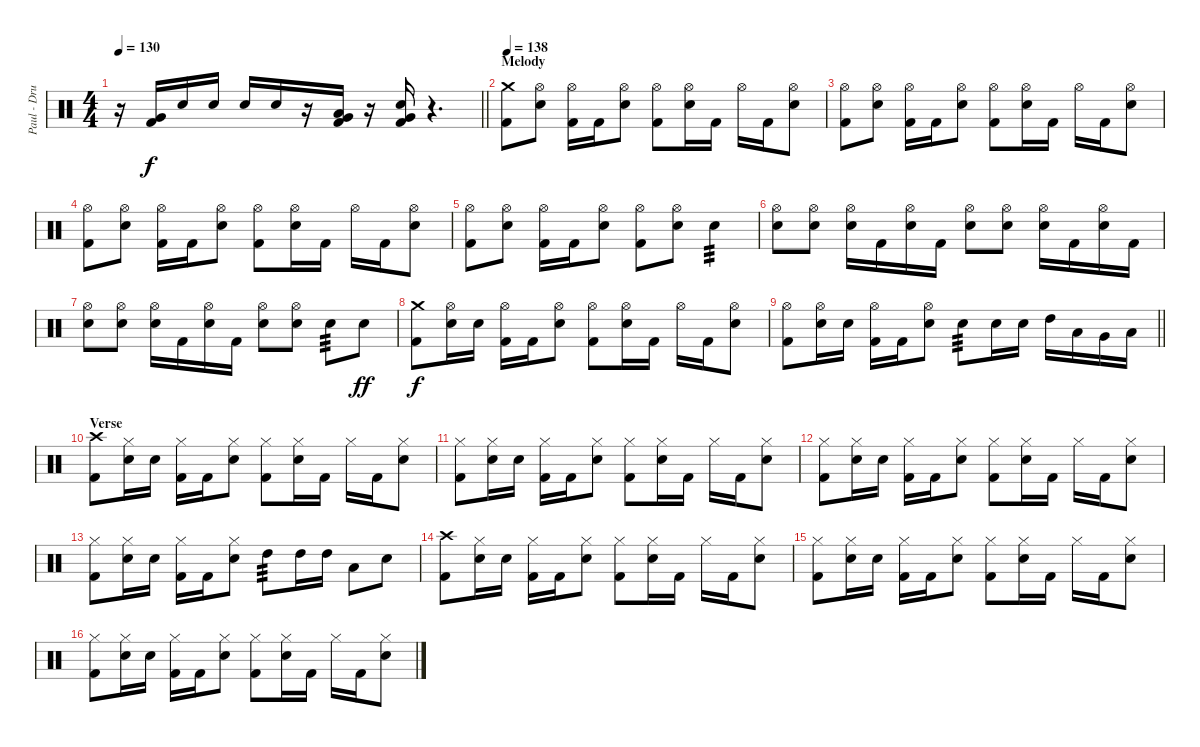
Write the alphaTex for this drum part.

\track ("Paul - Drums" "Paul - Dru") {instrument percussion}
\staff {score}
\articulation defaults
\ts (4 4)
\tempo 130
\clef neutral
\barLineRight lightlight
\ks c
r.16{dy f} ("Very Low Tom (hit)" "Kick (hit) 2").16{volume 12} "Electric Snare (hit)".16 "Electric Snare (hit)".16 "Electric Snare (hit)".16 "Electric Snare (hit)".16 r.16 ("Very Low Tom (hit)" "Low Floor Tom (hit)" "Kick (hit) 2").16 r.16 ("Electric Snare (hit)" "Very Low Tom (hit)" "Kick (hit) 2").16 r.4{d} |
\section ("" "Melody")
\tempo 138
("Crash medium (hit)" "Kick (hit) 2").8 ("Hi-Hat (open)" "Electric Snare (hit)").8 ("Hi-Hat (open)" "Kick (hit) 2").16 "Kick (hit) 2".16 ("Hi-Hat (open)" "Electric Snare (hit)").8 ("Hi-Hat (open)" "Kick (hit) 2").8 ("Hi-Hat (open)" "Electric Snare (hit)").16 "Kick (hit) 2".16 "Hi-Hat (open)".16 "Kick (hit) 2".16 ("Hi-Hat (open)" "Electric Snare (hit)").8 |
("Hi-Hat (open)" "Kick (hit) 2").8 ("Hi-Hat (open)" "Electric Snare (hit)").8 ("Hi-Hat (open)" "Kick (hit) 2").16 "Kick (hit) 2".16 ("Hi-Hat (open)" "Electric Snare (hit)").8 ("Hi-Hat (open)" "Kick (hit) 2").8 ("Hi-Hat (open)" "Electric Snare (hit)").16 "Kick (hit) 2".16 "Hi-Hat (open)".16 "Kick (hit) 2".16 ("Hi-Hat (open)" "Electric Snare (hit)").8 |
("Hi-Hat (open)" "Kick (hit) 2").8 ("Hi-Hat (open)" "Electric Snare (hit)").8 ("Hi-Hat (open)" "Kick (hit) 2").16 "Kick (hit) 2".16 ("Hi-Hat (open)" "Electric Snare (hit)").8 ("Hi-Hat (open)" "Kick (hit) 2").8 ("Hi-Hat (open)" "Electric Snare (hit)").16 "Kick (hit) 2".16 "Hi-Hat (open)".16 "Kick (hit) 2".16 ("Hi-Hat (open)" "Electric Snare (hit)").8 |
("Hi-Hat (open)" "Kick (hit) 2").8 ("Hi-Hat (open)" "Electric Snare (hit)").8 ("Hi-Hat (open)" "Kick (hit) 2").16 "Kick (hit) 2".16 ("Hi-Hat (open)" "Electric Snare (hit)").8 ("Hi-Hat (open)" "Kick (hit) 2").8 ("Hi-Hat (open)" "Electric Snare (hit)").8 "Electric Snare (hit)".4{tp 3} |
("Hi-Hat (open)" "Electric Snare (hit)").8 ("Hi-Hat (open)" "Electric Snare (hit)").8 ("Hi-Hat (open)" "Electric Snare (hit)").16 "Kick (hit) 2".16 ("Hi-Hat (open)" "Electric Snare (hit)").16 "Kick (hit) 2".16 ("Hi-Hat (open)" "Electric Snare (hit)").8 ("Hi-Hat (open)" "Electric Snare (hit)").8 ("Hi-Hat (open)" "Electric Snare (hit)").16 "Kick (hit) 2".16 ("Hi-Hat (open)" "Electric Snare (hit)").16 "Kick (hit) 2".16 |
("Hi-Hat (open)" "Electric Snare (hit)").8 ("Hi-Hat (open)" "Electric Snare (hit)").8 ("Hi-Hat (open)" "Electric Snare (hit)").16 "Kick (hit) 2".16 ("Hi-Hat (open)" "Electric Snare (hit)").16 "Kick (hit) 2".16 ("Hi-Hat (open)" "Electric Snare (hit)").8 ("Hi-Hat (open)" "Electric Snare (hit)").8 "Electric Snare (hit)".8{tp 3} "Electric Snare (hit)".8{dy ff} |
("Crash medium (hit)" "Kick (hit) 2").8{dy f} ("Hi-Hat (open)" "Electric Snare (hit)").16 "Electric Snare (hit)".16 ("Hi-Hat (open)" "Kick (hit) 2").16 "Kick (hit) 2".16 ("Hi-Hat (open)" "Electric Snare (hit)").8 ("Hi-Hat (open)" "Kick (hit) 2").8 ("Hi-Hat (open)" "Electric Snare (hit)").16 "Kick (hit) 2".16 "Hi-Hat (open)".16 "Kick (hit) 2".16 ("Hi-Hat (open)" "Electric Snare (hit)").8 |
\barLineRight lightlight
("Hi-Hat (open)" "Kick (hit) 2").8 ("Hi-Hat (open)" "Electric Snare (hit)").16 "Electric Snare (hit)".16 ("Hi-Hat (open)" "Kick (hit) 2").16 "Kick (hit) 2".16 ("Hi-Hat (open)" "Electric Snare (hit)").8 "Electric Snare (hit)".8{tp 3} "Electric Snare (hit)".16 "Electric Snare (hit)".16 "High Tom (hit)".16 "Low Tom (hit)".16 "Very Low Tom (hit)".16 "Low Floor Tom (hit)".16 |
\section ("" "Verse")
("Crash high (hit)" "Kick (hit) 2").8 ("Hi-Hat (closed)" "Electric Snare (hit)").16 "Electric Snare (hit)".16 ("Hi-Hat (closed)" "Kick (hit) 2").16 "Kick (hit) 2".16 ("Hi-Hat (closed)" "Electric Snare (hit)").8 ("Hi-Hat (closed)" "Kick (hit) 2").8 ("Hi-Hat (closed)" "Electric Snare (hit)").16 "Kick (hit) 2".16 "Hi-Hat (closed)".16 "Kick (hit) 2".16 ("Hi-Hat (closed)" "Electric Snare (hit)").8 |
("Hi-Hat (closed)" "Kick (hit) 2").8 ("Hi-Hat (closed)" "Electric Snare (hit)").16 "Electric Snare (hit)".16 ("Hi-Hat (closed)" "Kick (hit) 2").16 "Kick (hit) 2".16 ("Hi-Hat (closed)" "Electric Snare (hit)").8 ("Hi-Hat (closed)" "Kick (hit) 2").8 ("Hi-Hat (closed)" "Electric Snare (hit)").16 "Kick (hit) 2".16 "Hi-Hat (closed)".16 "Kick (hit) 2".16 ("Hi-Hat (closed)" "Electric Snare (hit)").8 |
("Hi-Hat (closed)" "Kick (hit) 2").8 ("Hi-Hat (closed)" "Electric Snare (hit)").16 "Electric Snare (hit)".16 ("Hi-Hat (closed)" "Kick (hit) 2").16 "Kick (hit) 2".16 ("Hi-Hat (closed)" "Electric Snare (hit)").8 ("Hi-Hat (closed)" "Kick (hit) 2").8 ("Hi-Hat (closed)" "Electric Snare (hit)").16 "Kick (hit) 2".16 "Hi-Hat (closed)".16 "Kick (hit) 2".16 ("Hi-Hat (closed)" "Electric Snare (hit)").8 |
("Hi-Hat (closed)" "Kick (hit) 2").8 ("Hi-Hat (closed)" "Electric Snare (hit)").16 "Electric Snare (hit)".16 ("Hi-Hat (closed)" "Kick (hit) 2").16 "Kick (hit) 2".16 ("Hi-Hat (closed)" "Electric Snare (hit)").8 "High Tom (hit)".8{tp 3} "High Tom (hit)".16 "High Tom (hit)".16 "Low Tom (hit)".8 "Electric Snare (hit)".8 |
("Crash high (hit)" "Kick (hit) 2").8 ("Hi-Hat (closed)" "Electric Snare (hit)").16 "Electric Snare (hit)".16 ("Hi-Hat (closed)" "Kick (hit) 2").16 "Kick (hit) 2".16 ("Hi-Hat (closed)" "Electric Snare (hit)").8 ("Hi-Hat (closed)" "Kick (hit) 2").8 ("Hi-Hat (closed)" "Electric Snare (hit)").16 "Kick (hit) 2".16 "Hi-Hat (closed)".16 "Kick (hit) 2".16 ("Hi-Hat (closed)" "Electric Snare (hit)").8 |
("Hi-Hat (closed)" "Kick (hit) 2").8 ("Hi-Hat (closed)" "Electric Snare (hit)").16 "Electric Snare (hit)".16 ("Hi-Hat (closed)" "Kick (hit) 2").16 "Kick (hit) 2".16 ("Hi-Hat (closed)" "Electric Snare (hit)").8 ("Hi-Hat (closed)" "Kick (hit) 2").8 ("Hi-Hat (closed)" "Electric Snare (hit)").16 "Kick (hit) 2".16 "Hi-Hat (closed)".16 "Kick (hit) 2".16 ("Hi-Hat (closed)" "Electric Snare (hit)").8 |
("Hi-Hat (closed)" "Kick (hit) 2").8 ("Hi-Hat (closed)" "Electric Snare (hit)").16 "Electric Snare (hit)".16 ("Hi-Hat (closed)" "Kick (hit) 2").16 "Kick (hit) 2".16 ("Hi-Hat (closed)" "Electric Snare (hit)").8 ("Hi-Hat (closed)" "Kick (hit) 2").8 ("Hi-Hat (closed)" "Electric Snare (hit)").16 "Kick (hit) 2".16 "Hi-Hat (closed)".16 "Kick (hit) 2".16 ("Hi-Hat (closed)" "Electric Snare (hit)").8
